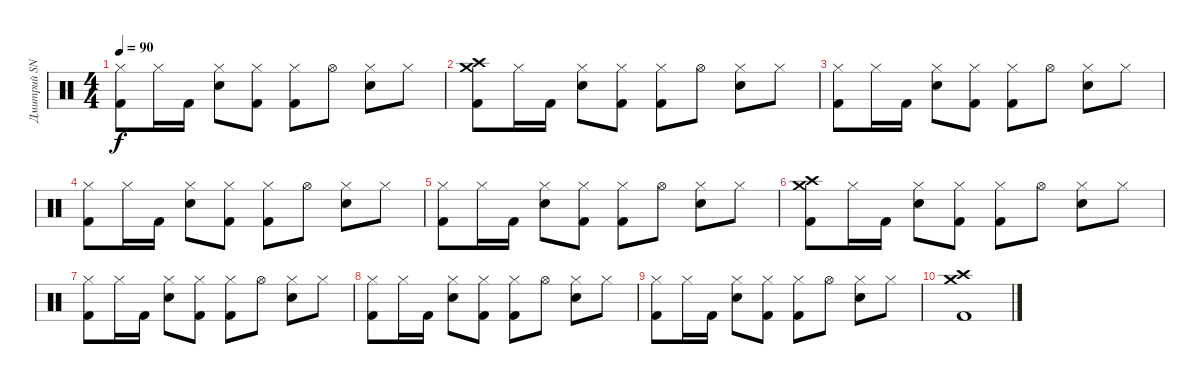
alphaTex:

\track ("Дмитрий SNAKE Хакимов" "Дмитрий SN") {instrument percussion}
\staff {score}
\articulation defaults
\ts (4 4)
\tempo 90
\clef neutral
\ks c
("Hi-Hat (closed)" "Kick (hit) 2").8{dy f} "Hi-Hat (closed)".16 "Kick (hit) 2".16 ("Hi-Hat (closed)" "Snare (hit) 2").8 ("Hi-Hat (closed)" "Kick (hit) 2").8 ("Hi-Hat (closed)" "Kick (hit) 2").8 "Hi-Hat (open)".8 ("Hi-Hat (closed)" "Snare (hit) 2").8 "Hi-Hat (closed)".8 |
("Crash high (hit)" "Crash medium (hit)" "Kick (hit) 2").8 "Hi-Hat (closed)".16 "Kick (hit) 2".16 ("Hi-Hat (closed)" "Snare (hit) 2").8 ("Hi-Hat (closed)" "Kick (hit) 2").8 ("Hi-Hat (closed)" "Kick (hit) 2").8 "Hi-Hat (open)".8 ("Hi-Hat (closed)" "Snare (hit) 2").8 "Hi-Hat (closed)".8 |
("Hi-Hat (closed)" "Kick (hit) 2").8 "Hi-Hat (closed)".16 "Kick (hit) 2".16 ("Hi-Hat (closed)" "Snare (hit) 2").8 ("Hi-Hat (closed)" "Kick (hit) 2").8 ("Hi-Hat (closed)" "Kick (hit) 2").8 "Hi-Hat (open)".8 ("Hi-Hat (closed)" "Snare (hit) 2").8 "Hi-Hat (closed)".8 |
("Hi-Hat (closed)" "Kick (hit) 2").8 "Hi-Hat (closed)".16 "Kick (hit) 2".16 ("Hi-Hat (closed)" "Snare (hit) 2").8 ("Hi-Hat (closed)" "Kick (hit) 2").8 ("Hi-Hat (closed)" "Kick (hit) 2").8 "Hi-Hat (open)".8 ("Hi-Hat (closed)" "Snare (hit) 2").8 "Hi-Hat (closed)".8 |
("Hi-Hat (closed)" "Kick (hit) 2").8 "Hi-Hat (closed)".16 "Kick (hit) 2".16 ("Hi-Hat (closed)" "Snare (hit) 2").8 ("Hi-Hat (closed)" "Kick (hit) 2").8 ("Hi-Hat (closed)" "Kick (hit) 2").8 "Hi-Hat (open)".8 ("Hi-Hat (closed)" "Snare (hit) 2").8 "Hi-Hat (closed)".8 |
("Crash high (hit)" "Crash medium (hit)" "Kick (hit) 2").8 "Hi-Hat (closed)".16 "Kick (hit) 2".16 ("Hi-Hat (closed)" "Snare (hit) 2").8 ("Hi-Hat (closed)" "Kick (hit) 2").8 ("Hi-Hat (closed)" "Kick (hit) 2").8 "Hi-Hat (open)".8 ("Hi-Hat (closed)" "Snare (hit) 2").8 "Hi-Hat (closed)".8 |
("Hi-Hat (closed)" "Kick (hit) 2").8 "Hi-Hat (closed)".16 "Kick (hit) 2".16 ("Hi-Hat (closed)" "Snare (hit) 2").8 ("Hi-Hat (closed)" "Kick (hit) 2").8 ("Hi-Hat (closed)" "Kick (hit) 2").8 "Hi-Hat (open)".8 ("Hi-Hat (closed)" "Snare (hit) 2").8 "Hi-Hat (closed)".8 |
("Hi-Hat (closed)" "Kick (hit) 2").8 "Hi-Hat (closed)".16 "Kick (hit) 2".16 ("Hi-Hat (closed)" "Snare (hit) 2").8 ("Hi-Hat (closed)" "Kick (hit) 2").8 ("Hi-Hat (closed)" "Kick (hit) 2").8 "Hi-Hat (open)".8 ("Hi-Hat (closed)" "Snare (hit) 2").8 "Hi-Hat (closed)".8 |
("Hi-Hat (closed)" "Kick (hit) 2").8 "Hi-Hat (closed)".16 "Kick (hit) 2".16 ("Hi-Hat (closed)" "Snare (hit) 2").8 ("Hi-Hat (closed)" "Kick (hit) 2").8 ("Hi-Hat (closed)" "Kick (hit) 2").8 "Hi-Hat (open)".8 ("Hi-Hat (closed)" "Snare (hit) 2").8 "Hi-Hat (closed)".8 |
("Crash high (hit)" "Crash medium (hit)" "Kick (hit) 2").1
